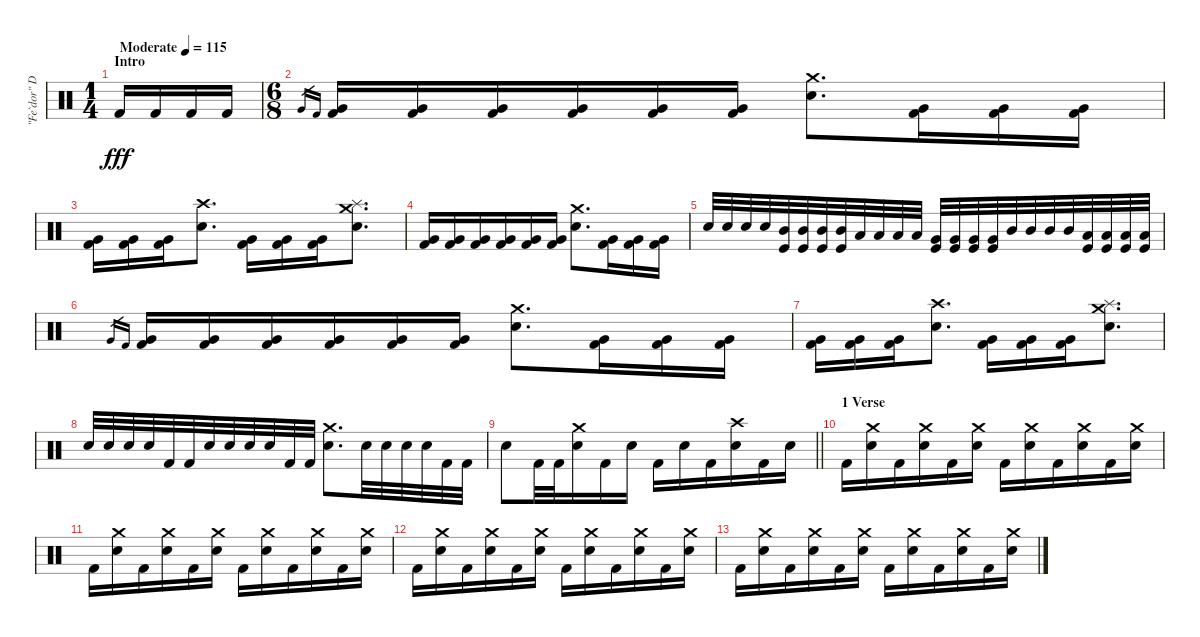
\track ("\"Fe`dor\" Drums" "\"Fe`dor\" D") {instrument percussion}
\staff {score}
\articulation defaults
\ts (1 4)
\section ("" "Intro")
\tempo (115 "Moderate")
\clef neutral
\ks c "Kick (hit) 2".16{dy fff volume 0} "Kick (hit) 2".16{volume 16} "Kick (hit) 2".16 "Kick (hit) 2".16
|
\ts (6 8)
"Very Low Tom (hit)".16{gr} "Kick (hit) 2".16{gr} ("Very Low Tom (hit)" "Kick (hit) 2").16 ("Very Low Tom (hit)" "Kick (hit) 2").16 ("Very Low Tom (hit)" "Kick (hit) 2").16 ("Very Low Tom (hit)" "Kick (hit) 2").16 ("Very Low Tom (hit)" "Kick (hit) 2").16 ("Very Low Tom (hit)" "Kick (hit) 2").16 ("Crash medium (hit)" "Electric Snare (hit)").8{d} ("Very Low Tom (hit)" "Kick (hit) 2").16 ("Very Low Tom (hit)" "Kick (hit) 2").16 ("Very Low Tom (hit)" "Kick (hit) 2").16 |
("Very Low Tom (hit)" "Kick (hit) 2").16 ("Very Low Tom (hit)" "Kick (hit) 2").16 ("Very Low Tom (hit)" "Kick (hit) 2").16 ("Crash high (hit)" "Electric Snare (hit)").8{d} ("Very Low Tom (hit)" "Kick (hit) 2").16 ("Very Low Tom (hit)" "Kick (hit) 2").16 ("Very Low Tom (hit)" "Kick (hit) 2").16 ("Splash (hit)" "Crash medium (hit)" "Electric Snare (hit)").8{d} |
("Very Low Tom (hit)" "Kick (hit) 2").16 ("Very Low Tom (hit)" "Kick (hit) 2").16 ("Very Low Tom (hit)" "Kick (hit) 2").16 ("Very Low Tom (hit)" "Kick (hit) 2").16 ("Very Low Tom (hit)" "Kick (hit) 2").16 ("Very Low Tom (hit)" "Kick (hit) 2").16 ("Crash medium (hit)" "Electric Snare (hit)").8{d} ("Very Low Tom (hit)" "Kick (hit) 2").16 ("Very Low Tom (hit)" "Kick (hit) 2").16 ("Very Low Tom (hit)" "Kick (hit) 2").16 |
"Electric Snare (hit)".32 "Electric Snare (hit)".32 "Electric Snare (hit)".32 "Electric Snare (hit)".32 ("Kick (hit)" "Mid Tom (hit)").32 ("Kick (hit)" "Mid Tom (hit)").32 ("Kick (hit)" "Mid Tom (hit)").32 ("Kick (hit)" "Mid Tom (hit)").32 "Low Tom (hit)".32 "Low Tom (hit)".32 "Low Tom (hit)".32 "Low Tom (hit)".32 ("Kick (hit)" "Very Low Tom (hit)").32 ("Kick (hit)" "Very Low Tom (hit)").32 ("Kick (hit)" "Very Low Tom (hit)").32 ("Kick (hit)" "Very Low Tom (hit)").32 "Mid Tom (hit)".32 "Mid Tom (hit)".32 "Mid Tom (hit)".32 "Mid Tom (hit)".32 ("Kick (hit)" "Low Floor Tom (hit)").32 ("Kick (hit)" "Low Floor Tom (hit)").32 ("Kick (hit)" "Low Floor Tom (hit)").32 ("Kick (hit)" "Low Floor Tom (hit)").32 |
"Very Low Tom (hit)".16{gr} "Kick (hit) 2".16{gr} ("Very Low Tom (hit)" "Kick (hit) 2").16 ("Very Low Tom (hit)" "Kick (hit) 2").16 ("Very Low Tom (hit)" "Kick (hit) 2").16 ("Very Low Tom (hit)" "Kick (hit) 2").16 ("Very Low Tom (hit)" "Kick (hit) 2").16 ("Very Low Tom (hit)" "Kick (hit) 2").16 ("Crash medium (hit)" "Electric Snare (hit)").8{d} ("Very Low Tom (hit)" "Kick (hit) 2").16 ("Very Low Tom (hit)" "Kick (hit) 2").16 ("Very Low Tom (hit)" "Kick (hit) 2").16 |
("Very Low Tom (hit)" "Kick (hit) 2").16 ("Very Low Tom (hit)" "Kick (hit) 2").16 ("Very Low Tom (hit)" "Kick (hit) 2").16 ("Crash high (hit)" "Electric Snare (hit)").8{d} ("Very Low Tom (hit)" "Kick (hit) 2").16 ("Very Low Tom (hit)" "Kick (hit) 2").16 ("Very Low Tom (hit)" "Kick (hit) 2").16 ("Splash (hit)" "Crash medium (hit)" "Electric Snare (hit)").8{d} |
"Electric Snare (hit)".32 "Electric Snare (hit)".32 "Electric Snare (hit)".32 "Electric Snare (hit)".32 "Kick (hit) 2".32 "Kick (hit) 2".32 "Electric Snare (hit)".32 "Electric Snare (hit)".32 "Electric Snare (hit)".32 "Electric Snare (hit)".32 "Kick (hit) 2".32 "Kick (hit) 2".32 ("Crash medium (hit)" "Electric Snare (hit)").8{d} "Electric Snare (hit)".32 "Electric Snare (hit)".32 "Electric Snare (hit)".32 "Electric Snare (hit)".32 "Kick (hit) 2".32 "Kick (hit) 2".32 |
\barLineRight lightlight "Electric Snare (hit)".8 "Kick (hit) 2".32 "Kick (hit) 2".32
("Crash medium (hit)" "Electric Snare (hit)").16 "Kick (hit) 2".16 "Electric Snare (hit)".16 "Kick (hit) 2".16 "Electric Snare (hit)".16 "Kick (hit) 2".16 ("Crash high (hit)" "Electric Snare (hit)").16 "Kick (hit) 2".16 "Electric Snare (hit)".16 |
\section ("" "1 Verse")
"Kick (hit) 2".16 ("Crash medium (hit)" "Electric Snare (hit)").16 "Kick (hit) 2".16 ("Crash medium (hit)" "Electric Snare (hit)").16 "Kick (hit) 2".16 ("Crash medium (hit)" "Electric Snare (hit)").16 "Kick (hit) 2".16 ("Crash medium (hit)" "Electric Snare (hit)").16 "Kick (hit) 2".16 ("Crash medium (hit)" "Electric Snare (hit)").16 "Kick (hit) 2".16 ("Crash medium (hit)" "Electric Snare (hit)").16 |
"Kick (hit) 2".16 ("Crash medium (hit)" "Electric Snare (hit)").16 "Kick (hit) 2".16 ("Crash medium (hit)" "Electric Snare (hit)").16 "Kick (hit) 2".16 ("Crash medium (hit)" "Electric Snare (hit)").16 "Kick (hit) 2".16 ("Crash medium (hit)" "Electric Snare (hit)").16 "Kick (hit) 2".16 ("Crash medium (hit)" "Electric Snare (hit)").16 "Kick (hit) 2".16 ("Crash medium (hit)" "Electric Snare (hit)").16 |
"Kick (hit) 2".16 ("Crash medium (hit)" "Electric Snare (hit)").16 "Kick (hit) 2".16 ("Crash medium (hit)" "Electric Snare (hit)").16 "Kick (hit) 2".16 ("Crash medium (hit)" "Electric Snare (hit)").16 "Kick (hit) 2".16 ("Crash medium (hit)" "Electric Snare (hit)").16 "Kick (hit) 2".16 ("Crash medium (hit)" "Electric Snare (hit)").16 "Kick (hit) 2".16 ("Crash medium (hit)" "Electric Snare (hit)").16 |
"Kick (hit) 2".16 ("Crash medium (hit)" "Electric Snare (hit)").16 "Kick (hit) 2".16 ("Crash medium (hit)" "Electric Snare (hit)").16 "Kick (hit) 2".16 ("Crash medium (hit)" "Electric Snare (hit)").16 "Kick (hit) 2".16 ("Crash medium (hit)" "Electric Snare (hit)").16 "Kick (hit) 2".16 ("Crash medium (hit)" "Electric Snare (hit)").16 "Kick (hit) 2".16 ("Crash medium (hit)" "Electric Snare (hit)").16
